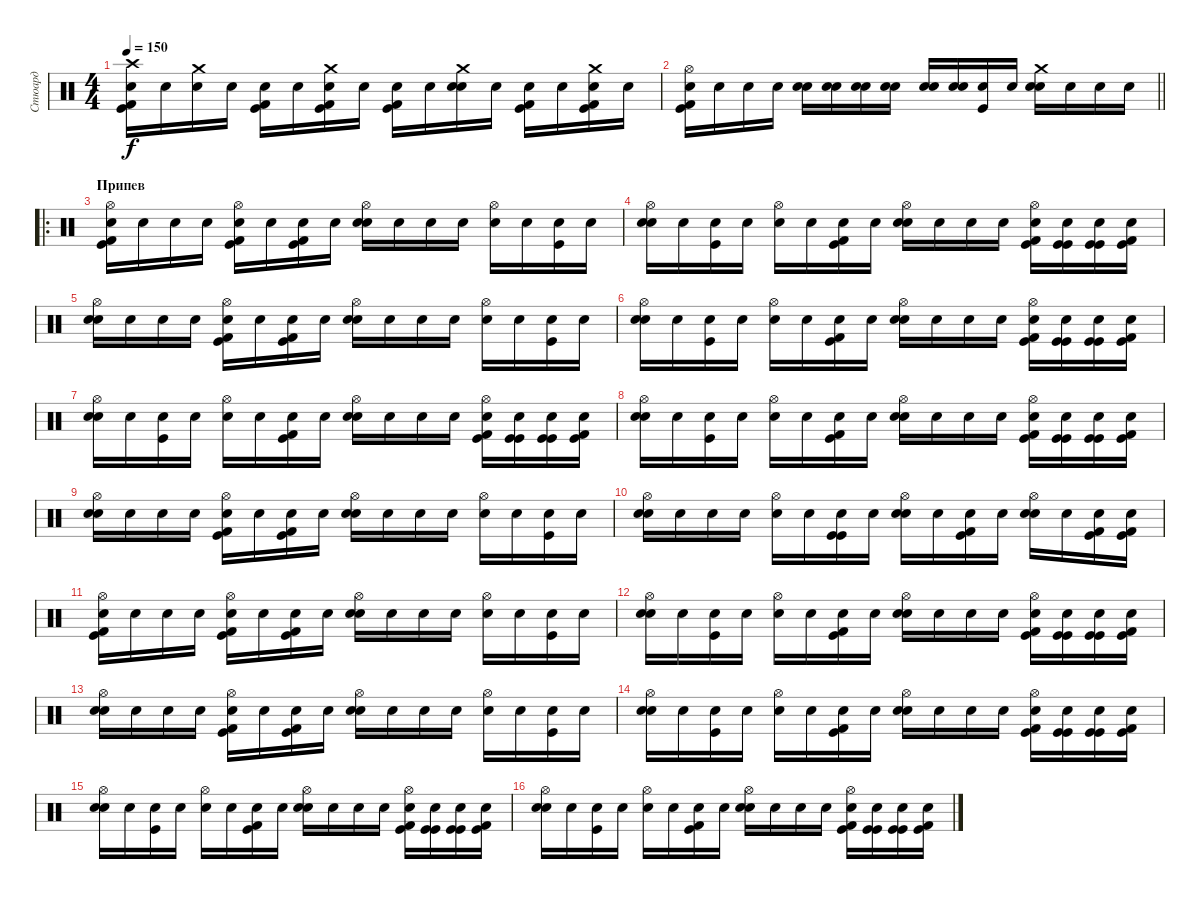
\track ("Стюард" "Стюард") {instrument percussion}
\staff {score}
\articulation defaults
\ts (4 4)
\tempo 150
\clef neutral
\ks c
("Crash high (hit)" "Kick (hit) 2" "Kick (hit)" "Snare (hit)"{x}).16{dy f} "Snare (hit)"{x}.16 ("Crash medium (hit)" "Snare (hit)"{x}).16 "Snare (hit)"{x}.16 ("Kick (hit) 2" "Kick (hit)" "Snare (hit)"{x}).16 "Snare (hit)"{x}.16 ("Crash medium (hit)" "Kick (hit) 2" "Kick (hit)" "Snare (hit)"{x}).16 "Snare (hit)"{x}.16 ("Kick (hit) 2" "Kick (hit)" "Snare (hit)"{x}).16 "Snare (hit)"{x}.16 ("Crash medium (hit)" "Snare (hit) 2" "Snare (hit)"{x}).16 "Snare (hit)"{x}.16 ("Kick (hit) 2" "Kick (hit)" "Snare (hit)"{x}).16 "Snare (hit)"{x}.16 ("Crash medium (hit)" "Kick (hit)" "Kick (hit) 2" "Snare (hit)"{x}).16 "Snare (hit)"{x}.16 |
\barLineRight lightlight
("Hi-Hat (open)" "Kick (hit) 2" "Kick (hit)" "Snare (hit)"{x}).16 "Snare (hit)"{x}.16 "Snare (hit)"{x}.16 "Snare (hit)"{x}.16 ("Snare (hit) 2" "Snare (hit)"{x}).16 ("Snare (hit) 2" "Snare (hit)"{x}).16 ("Snare (hit) 2" "Snare (hit)"{x}).16 ("Snare (hit) 2" "Snare (hit)"{x}).16 ("Snare (hit) 2" "Snare (hit)"{x}).16 ("Snare (hit) 2" "Snare (hit)"{x}).16 ("Kick (hit)" "Snare (hit)"{x}).16 "Snare (hit)"{x}.16 ("Crash medium (hit)" "Snare (hit) 2" "Snare (hit)"{x}).16 "Snare (hit)"{x}.16 "Snare (hit)"{x}.16 "Snare (hit)"{x}.16 |
\ro
\section ("" "Припев")
("Hi-Hat (open)" "Kick (hit)" "Kick (hit) 2" "Snare (hit)"{x}).16 "Snare (hit)"{x}.16 "Snare (hit)"{x}.16 "Snare (hit)"{x}.16 ("Hi-Hat (open)" "Kick (hit) 2" "Kick (hit)" "Snare (hit)"{x}).16 "Snare (hit)"{x}.16 ("Kick (hit) 2" "Kick (hit)" "Snare (hit)"{x}).16 "Snare (hit)"{x}.16 ("Hi-Hat (open)" "Snare (hit) 2" "Snare (hit)"{x}).16 "Snare (hit)"{x}.16 "Snare (hit)"{x}.16 "Snare (hit)"{x}.16 ("Hi-Hat (open)" "Snare (hit)"{x}).16 "Snare (hit)"{x}.16 ("Kick (hit)" "Snare (hit)"{x}).16 "Snare (hit)"{x}.16 |
("Hi-Hat (open)" "Snare (hit) 2" "Snare (hit)"{x}).16 "Snare (hit)"{x}.16 ("Kick (hit)" "Snare (hit)"{x}).16 "Snare (hit)"{x}.16 ("Hi-Hat (open)" "Snare (hit)"{x}).16 "Snare (hit)"{x}.16 ("Kick (hit) 2" "Kick (hit)" "Snare (hit)"{x}).16 "Snare (hit)"{x}.16 ("Hi-Hat (open)" "Snare (hit) 2" "Snare (hit)"{x}).16 "Snare (hit)"{x}.16 "Snare (hit)"{x}.16 "Snare (hit)"{x}.16 ("Hi-Hat (open)" "Kick (hit) 2" "Kick (hit)" "Snare (hit)"{x}).16 ("Kick (hit)" "Kick (hit)" "Snare (hit)"{x}).16 ("Kick (hit)" "Kick (hit)" "Snare (hit)"{x}).16 ("Kick (hit) 2" "Kick (hit)" "Snare (hit)"{x}).16 |
("Hi-Hat (open)" "Snare (hit) 2" "Snare (hit)"{x}).16 "Snare (hit)"{x}.16 "Snare (hit)"{x}.16 "Snare (hit)"{x}.16 ("Hi-Hat (open)" "Kick (hit) 2" "Kick (hit)" "Snare (hit)"{x}).16 "Snare (hit)"{x}.16 ("Kick (hit) 2" "Kick (hit)" "Snare (hit)"{x}).16 "Snare (hit)"{x}.16 ("Hi-Hat (open)" "Snare (hit) 2" "Snare (hit)"{x}).16 "Snare (hit)"{x}.16 "Snare (hit)"{x}.16 "Snare (hit)"{x}.16 ("Hi-Hat (open)" "Snare (hit)"{x}).16 "Snare (hit)"{x}.16 ("Kick (hit)" "Snare (hit)"{x}).16 "Snare (hit)"{x}.16 |
("Hi-Hat (open)" "Snare (hit) 2" "Snare (hit)"{x}).16 "Snare (hit)"{x}.16 ("Kick (hit)" "Snare (hit)"{x}).16 "Snare (hit)"{x}.16 ("Hi-Hat (open)" "Snare (hit)"{x}).16 "Snare (hit)"{x}.16 ("Kick (hit) 2" "Kick (hit)" "Snare (hit)"{x}).16 "Snare (hit)"{x}.16 ("Hi-Hat (open)" "Snare (hit) 2" "Snare (hit)"{x}).16 "Snare (hit)"{x}.16 "Snare (hit)"{x}.16 "Snare (hit)"{x}.16 ("Hi-Hat (open)" "Kick (hit) 2" "Kick (hit)" "Snare (hit)"{x}).16 ("Kick (hit)" "Kick (hit)" "Snare (hit)"{x}).16 ("Kick (hit)" "Kick (hit)" "Snare (hit)"{x}).16 ("Kick (hit) 2" "Kick (hit)" "Snare (hit)"{x}).16 |
("Hi-Hat (open)" "Snare (hit) 2" "Snare (hit)"{x}).16 "Snare (hit)"{x}.16 ("Kick (hit)" "Snare (hit)"{x}).16 "Snare (hit)"{x}.16 ("Hi-Hat (open)" "Snare (hit)"{x}).16 "Snare (hit)"{x}.16 ("Kick (hit) 2" "Kick (hit)" "Snare (hit)"{x}).16 "Snare (hit)"{x}.16 ("Hi-Hat (open)" "Snare (hit) 2" "Snare (hit)"{x}).16 "Snare (hit)"{x}.16 "Snare (hit)"{x}.16 "Snare (hit)"{x}.16 ("Hi-Hat (open)" "Kick (hit) 2" "Kick (hit)" "Snare (hit)"{x}).16 ("Kick (hit)" "Kick (hit)" "Snare (hit)"{x}).16 ("Kick (hit)" "Kick (hit)" "Snare (hit)"{x}).16 ("Kick (hit) 2" "Kick (hit)" "Snare (hit)"{x}).16 |
("Hi-Hat (open)" "Snare (hit) 2" "Snare (hit)"{x}).16 "Snare (hit)"{x}.16 ("Kick (hit)" "Snare (hit)"{x}).16 "Snare (hit)"{x}.16 ("Hi-Hat (open)" "Snare (hit)"{x}).16 "Snare (hit)"{x}.16 ("Kick (hit) 2" "Kick (hit)" "Snare (hit)"{x}).16 "Snare (hit)"{x}.16 ("Hi-Hat (open)" "Snare (hit) 2" "Snare (hit)"{x}).16 "Snare (hit)"{x}.16 "Snare (hit)"{x}.16 "Snare (hit)"{x}.16 ("Hi-Hat (open)" "Kick (hit) 2" "Kick (hit)" "Snare (hit)"{x}).16 ("Kick (hit)" "Kick (hit)" "Snare (hit)"{x}).16 ("Kick (hit)" "Kick (hit)" "Snare (hit)"{x}).16 ("Kick (hit) 2" "Kick (hit)" "Snare (hit)"{x}).16 |
("Hi-Hat (open)" "Snare (hit) 2" "Snare (hit)"{x}).16 "Snare (hit)"{x}.16 "Snare (hit)"{x}.16 "Snare (hit)"{x}.16 ("Hi-Hat (open)" "Kick (hit) 2" "Kick (hit)" "Snare (hit)"{x}).16 "Snare (hit)"{x}.16 ("Kick (hit) 2" "Kick (hit)" "Snare (hit)"{x}).16 "Snare (hit)"{x}.16 ("Hi-Hat (open)" "Snare (hit) 2" "Snare (hit)"{x}).16 "Snare (hit)"{x}.16 "Snare (hit)"{x}.16 "Snare (hit)"{x}.16 ("Hi-Hat (open)" "Snare (hit)"{x}).16 "Snare (hit)"{x}.16 ("Kick (hit)" "Snare (hit)"{x}).16 "Snare (hit)"{x}.16 |
("Hi-Hat (open)" "Snare (hit) 2" "Snare (hit)"{x}).16 "Snare (hit)"{x}.16 "Snare (hit)"{x}.16 "Snare (hit)"{x}.16 ("Hi-Hat (open)" "Snare (hit)"{x}).16 "Snare (hit)"{x}.16 ("Kick (hit)" "Kick (hit)" "Snare (hit)"{x}).16 "Snare (hit)"{x}.16 ("Hi-Hat (open)" "Snare (hit) 2" "Snare (hit)"{x}).16 "Snare (hit)"{x}.16 ("Kick (hit) 2" "Kick (hit)" "Snare (hit)"{x}).16 "Snare (hit)"{x}.16 ("Hi-Hat (open)" "Snare (hit) 2" "Snare (hit)"{x}).16 "Snare (hit)"{x}.16 ("Kick (hit) 2" "Kick (hit)" "Snare (hit)"{x}).16 ("Kick (hit) 2" "Kick (hit)" "Snare (hit)"{x}).16 |
("Hi-Hat (open)" "Kick (hit)" "Kick (hit) 2" "Snare (hit)"{x}).16 "Snare (hit)"{x}.16 "Snare (hit)"{x}.16 "Snare (hit)"{x}.16 ("Hi-Hat (open)" "Kick (hit) 2" "Kick (hit)" "Snare (hit)"{x}).16 "Snare (hit)"{x}.16 ("Kick (hit) 2" "Kick (hit)" "Snare (hit)"{x}).16 "Snare (hit)"{x}.16 ("Hi-Hat (open)" "Snare (hit) 2" "Snare (hit)"{x}).16 "Snare (hit)"{x}.16 "Snare (hit)"{x}.16 "Snare (hit)"{x}.16 ("Hi-Hat (open)" "Snare (hit)"{x}).16 "Snare (hit)"{x}.16 ("Kick (hit)" "Snare (hit)"{x}).16 "Snare (hit)"{x}.16 |
("Hi-Hat (open)" "Snare (hit) 2" "Snare (hit)"{x}).16 "Snare (hit)"{x}.16 ("Kick (hit)" "Snare (hit)"{x}).16 "Snare (hit)"{x}.16 ("Hi-Hat (open)" "Snare (hit)"{x}).16 "Snare (hit)"{x}.16 ("Kick (hit) 2" "Kick (hit)" "Snare (hit)"{x}).16 "Snare (hit)"{x}.16 ("Hi-Hat (open)" "Snare (hit) 2" "Snare (hit)"{x}).16 "Snare (hit)"{x}.16 "Snare (hit)"{x}.16 "Snare (hit)"{x}.16 ("Hi-Hat (open)" "Kick (hit) 2" "Kick (hit)" "Snare (hit)"{x}).16 ("Kick (hit)" "Kick (hit)" "Snare (hit)"{x}).16 ("Kick (hit)" "Kick (hit)" "Snare (hit)"{x}).16 ("Kick (hit) 2" "Kick (hit)" "Snare (hit)"{x}).16 |
("Hi-Hat (open)" "Snare (hit) 2" "Snare (hit)"{x}).16 "Snare (hit)"{x}.16 "Snare (hit)"{x}.16 "Snare (hit)"{x}.16 ("Hi-Hat (open)" "Kick (hit) 2" "Kick (hit)" "Snare (hit)"{x}).16 "Snare (hit)"{x}.16 ("Kick (hit) 2" "Kick (hit)" "Snare (hit)"{x}).16 "Snare (hit)"{x}.16 ("Hi-Hat (open)" "Snare (hit) 2" "Snare (hit)"{x}).16 "Snare (hit)"{x}.16 "Snare (hit)"{x}.16 "Snare (hit)"{x}.16 ("Hi-Hat (open)" "Snare (hit)"{x}).16 "Snare (hit)"{x}.16 ("Kick (hit)" "Snare (hit)"{x}).16 "Snare (hit)"{x}.16 |
("Hi-Hat (open)" "Snare (hit) 2" "Snare (hit)"{x}).16 "Snare (hit)"{x}.16 ("Kick (hit)" "Snare (hit)"{x}).16 "Snare (hit)"{x}.16 ("Hi-Hat (open)" "Snare (hit)"{x}).16 "Snare (hit)"{x}.16 ("Kick (hit) 2" "Kick (hit)" "Snare (hit)"{x}).16 "Snare (hit)"{x}.16 ("Hi-Hat (open)" "Snare (hit) 2" "Snare (hit)"{x}).16 "Snare (hit)"{x}.16 "Snare (hit)"{x}.16 "Snare (hit)"{x}.16 ("Hi-Hat (open)" "Kick (hit) 2" "Kick (hit)" "Snare (hit)"{x}).16 ("Kick (hit)" "Kick (hit)" "Snare (hit)"{x}).16 ("Kick (hit)" "Kick (hit)" "Snare (hit)"{x}).16 ("Kick (hit) 2" "Kick (hit)" "Snare (hit)"{x}).16 |
("Hi-Hat (open)" "Snare (hit) 2" "Snare (hit)"{x}).16 "Snare (hit)"{x}.16 ("Kick (hit)" "Snare (hit)"{x}).16 "Snare (hit)"{x}.16 ("Hi-Hat (open)" "Snare (hit)"{x}).16 "Snare (hit)"{x}.16 ("Kick (hit) 2" "Kick (hit)" "Snare (hit)"{x}).16 "Snare (hit)"{x}.16 ("Hi-Hat (open)" "Snare (hit) 2" "Snare (hit)"{x}).16 "Snare (hit)"{x}.16 "Snare (hit)"{x}.16 "Snare (hit)"{x}.16 ("Hi-Hat (open)" "Kick (hit) 2" "Kick (hit)" "Snare (hit)"{x}).16 ("Kick (hit)" "Kick (hit)" "Snare (hit)"{x}).16 ("Kick (hit)" "Kick (hit)" "Snare (hit)"{x}).16 ("Kick (hit) 2" "Kick (hit)" "Snare (hit)"{x}).16 |
("Hi-Hat (open)" "Snare (hit) 2" "Snare (hit)"{x}).16 "Snare (hit)"{x}.16 ("Kick (hit)" "Snare (hit)"{x}).16 "Snare (hit)"{x}.16 ("Hi-Hat (open)" "Snare (hit)"{x}).16 "Snare (hit)"{x}.16 ("Kick (hit) 2" "Kick (hit)" "Snare (hit)"{x}).16 "Snare (hit)"{x}.16 ("Hi-Hat (open)" "Snare (hit) 2" "Snare (hit)"{x}).16 "Snare (hit)"{x}.16 "Snare (hit)"{x}.16 "Snare (hit)"{x}.16 ("Hi-Hat (open)" "Kick (hit) 2" "Kick (hit)" "Snare (hit)"{x}).16 ("Kick (hit)" "Kick (hit)" "Snare (hit)"{x}).16 ("Kick (hit)" "Kick (hit)" "Snare (hit)"{x}).16 ("Kick (hit) 2" "Kick (hit)" "Snare (hit)"{x}).16
